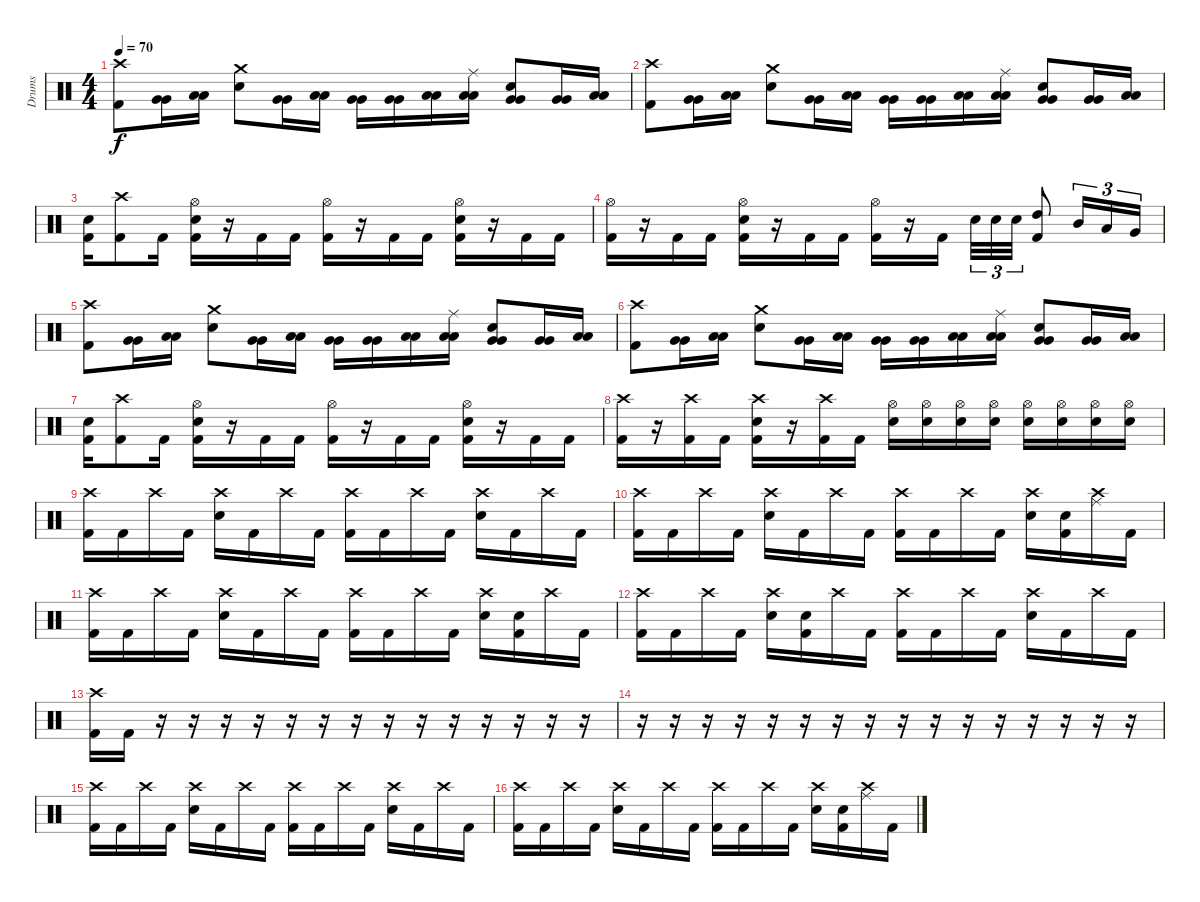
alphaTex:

\track ("Drums" "Drums") {instrument percussion}
\staff {score}
\articulation defaults
\ts (4 4)
\tempo 70
\clef neutral
\ks c
("Crash high (hit)" "Kick (hit) 2").8{dy f} ("Very Low Tom (hit)" "Very Low Tom (hit)").16 ("Low Floor Tom (hit)" "Low Floor Tom (hit)").16 ("Crash medium (hit)" "Snare (hit) 2").8 ("Very Low Tom (hit)" "Very Low Tom (hit)").16 ("Low Floor Tom (hit)" "Low Floor Tom (hit)").16 ("Very Low Tom (hit)" "Very Low Tom (hit)").16 ("Very Low Tom (hit)" "Very Low Tom (hit)").16 ("Low Floor Tom (hit)" "Low Floor Tom (hit)").16 ("Ride (middle)" "Low Floor Tom (hit)" "Low Floor Tom (hit)").16 ("Very Low Tom (hit)" "Very Low Tom (hit)" "Snare (hit) 2").8 ("Very Low Tom (hit)" "Very Low Tom (hit)").16 ("Low Floor Tom (hit)" "Low Floor Tom (hit)").16 |
("Crash high (hit)" "Kick (hit) 2").8 ("Very Low Tom (hit)" "Very Low Tom (hit)").16 ("Low Floor Tom (hit)" "Low Floor Tom (hit)").16 ("Crash medium (hit)" "Snare (hit) 2").8 ("Very Low Tom (hit)" "Very Low Tom (hit)").16 ("Low Floor Tom (hit)" "Low Floor Tom (hit)").16 ("Very Low Tom (hit)" "Very Low Tom (hit)").16 ("Very Low Tom (hit)" "Very Low Tom (hit)").16 ("Low Floor Tom (hit)" "Low Floor Tom (hit)").16 ("Ride (middle)" "Low Floor Tom (hit)" "Low Floor Tom (hit)").16 ("Very Low Tom (hit)" "Very Low Tom (hit)" "Snare (hit) 2").8 ("Very Low Tom (hit)" "Very Low Tom (hit)").16 ("Low Floor Tom (hit)" "Low Floor Tom (hit)").16 |
("Snare (hit) 2" "Kick (hit) 2").16 ("Crash high (hit)" "Kick (hit) 2").8 "Kick (hit) 2".16 ("Hi-Hat (open)" "Snare (hit) 2" "Kick (hit) 2").16 r.16 "Kick (hit) 2".16 "Kick (hit) 2".16 ("Hi-Hat (open)" "Kick (hit) 2").16 r.16 "Kick (hit) 2".16 "Kick (hit) 2".16 ("Hi-Hat (open)" "Snare (hit) 2" "Kick (hit) 2").16 r.16 "Kick (hit) 2".16 "Kick (hit) 2".16 |
("Hi-Hat (open)" "Kick (hit) 2").16 r.16 "Kick (hit) 2".16 "Kick (hit) 2".16 ("Hi-Hat (open)" "Snare (hit) 2" "Kick (hit) 2").16 r.16 "Kick (hit) 2".16 "Kick (hit) 2".16 ("Hi-Hat (open)" "Kick (hit) 2").16 r.16 "Kick (hit) 2".16 "Snare (hit) 2".32{tu (3 2)} "Snare (hit) 2".32{tu (3 2)} "Snare (hit) 2".32{tu (3 2)} ("High Tom (hit)" "Kick (hit) 2").8 "Mid Tom (hit)".16{tu (3 2)} "Low Tom (hit)".16{tu (3 2)} "Very Low Tom (hit)".16{tu (3 2)} |
("Crash high (hit)" "Kick (hit) 2").8 ("Very Low Tom (hit)" "Very Low Tom (hit)").16 ("Low Floor Tom (hit)" "Low Floor Tom (hit)").16 ("Crash medium (hit)" "Snare (hit) 2").8 ("Very Low Tom (hit)" "Very Low Tom (hit)").16 ("Low Floor Tom (hit)" "Low Floor Tom (hit)").16 ("Very Low Tom (hit)" "Very Low Tom (hit)").16 ("Very Low Tom (hit)" "Very Low Tom (hit)").16 ("Low Floor Tom (hit)" "Low Floor Tom (hit)").16 ("Ride (middle)" "Low Floor Tom (hit)" "Low Floor Tom (hit)").16 ("Very Low Tom (hit)" "Very Low Tom (hit)" "Snare (hit) 2").8 ("Very Low Tom (hit)" "Very Low Tom (hit)").16 ("Low Floor Tom (hit)" "Low Floor Tom (hit)").16 |
("Crash high (hit)" "Kick (hit) 2").8 ("Very Low Tom (hit)" "Very Low Tom (hit)").16 ("Low Floor Tom (hit)" "Low Floor Tom (hit)").16 ("Crash medium (hit)" "Snare (hit) 2").8 ("Very Low Tom (hit)" "Very Low Tom (hit)").16 ("Low Floor Tom (hit)" "Low Floor Tom (hit)").16 ("Very Low Tom (hit)" "Very Low Tom (hit)").16 ("Very Low Tom (hit)" "Very Low Tom (hit)").16 ("Low Floor Tom (hit)" "Low Floor Tom (hit)").16 ("Ride (middle)" "Low Floor Tom (hit)" "Low Floor Tom (hit)").16 ("Very Low Tom (hit)" "Very Low Tom (hit)" "Snare (hit) 2").8 ("Very Low Tom (hit)" "Very Low Tom (hit)").16 ("Low Floor Tom (hit)" "Low Floor Tom (hit)").16 |
("Snare (hit) 2" "Kick (hit) 2").16 ("Crash high (hit)" "Kick (hit) 2").8 "Kick (hit) 2".16 ("Hi-Hat (open)" "Snare (hit) 2" "Kick (hit) 2").16 r.16 "Kick (hit) 2".16 "Kick (hit) 2".16 ("Hi-Hat (open)" "Kick (hit) 2").16 r.16 "Kick (hit) 2".16 "Kick (hit) 2".16 ("Hi-Hat (open)" "Snare (hit) 2" "Kick (hit) 2").16 r.16 "Kick (hit) 2".16 "Kick (hit) 2".16 |
("Crash high (hit)" "Kick (hit) 2").16 r.16 ("Crash high (hit)" "Kick (hit) 2").16 "Kick (hit) 2".16 ("Crash high (hit)" "Snare (hit) 2" "Kick (hit) 2").16 r.16 ("Crash high (hit)" "Kick (hit) 2").16 "Kick (hit) 2".16 ("Snare (hit) 2" "Hi-Hat (open)").16 ("Snare (hit) 2" "Hi-Hat (open)").16 ("Snare (hit) 2" "Hi-Hat (open)").16 ("Snare (hit) 2" "Hi-Hat (open)").16 ("Snare (hit) 2" "Hi-Hat (open)").16 ("Snare (hit) 2" "Hi-Hat (open)").16 ("Snare (hit) 2" "Hi-Hat (open)").16 ("Snare (hit) 2" "Hi-Hat (open)").16 |
("Crash high (hit)" "Kick (hit) 2").16 "Kick (hit) 2".16 "Crash high (hit)".16 "Kick (hit) 2".16 ("Crash high (hit)" "Snare (hit) 2").16 "Kick (hit) 2".16 "Crash high (hit)".16 "Kick (hit) 2".16 ("Crash high (hit)" "Kick (hit) 2").16 "Kick (hit) 2".16 "Crash high (hit)".16 "Kick (hit) 2".16 ("Crash high (hit)" "Snare (hit) 2").16 "Kick (hit) 2".16 "Crash high (hit)".16 "Kick (hit) 2".16 |
("Crash high (hit)" "Kick (hit) 2").16 "Kick (hit) 2".16 "Crash high (hit)".16 "Kick (hit) 2".16 ("Crash high (hit)" "Snare (hit) 2").16 "Kick (hit) 2".16 "Crash high (hit)".16 "Kick (hit) 2".16 ("Crash high (hit)" "Kick (hit) 2").16 "Kick (hit) 2".16 "Crash high (hit)".16 "Kick (hit) 2".16 ("Crash high (hit)" "Snare (hit) 2").16 ("Snare (hit) 2" "Kick (hit) 2").16 ("Crash high (hit)" "Ride (middle)").16 "Kick (hit) 2".16 |
("Crash high (hit)" "Kick (hit) 2").16 "Kick (hit) 2".16 "Crash high (hit)".16 "Kick (hit) 2".16 ("Crash high (hit)" "Snare (hit) 2").16 "Kick (hit) 2".16 "Crash high (hit)".16 "Kick (hit) 2".16 ("Crash high (hit)" "Kick (hit) 2").16 "Kick (hit) 2".16 "Crash high (hit)".16 "Kick (hit) 2".16 ("Crash high (hit)" "Snare (hit) 2").16 ("Snare (hit) 2" "Kick (hit) 2").16 "Crash high (hit)".16 "Kick (hit) 2".16 |
("Crash high (hit)" "Kick (hit) 2").16 "Kick (hit) 2".16 "Crash high (hit)".16 "Kick (hit) 2".16 ("Crash high (hit)" "Snare (hit) 2").16 ("Snare (hit) 2" "Kick (hit) 2").16 "Crash high (hit)".16 "Kick (hit) 2".16 ("Crash high (hit)" "Kick (hit) 2").16 "Kick (hit) 2".16 "Crash high (hit)".16 "Kick (hit) 2".16 ("Crash high (hit)" "Snare (hit) 2").16 "Kick (hit) 2".16 "Crash high (hit)".16 "Kick (hit) 2".16 |
("Crash high (hit)" "Kick (hit) 2").16 "Kick (hit) 2".16 r.16 r.16 r.16 r.16 r.16 r.16 r.16 r.16 r.16 r.16 r.16 r.16 r.16 r.16 |
r.16 r.16 r.16 r.16 r.16 r.16 r.16 r.16 r.16 r.16 r.16 r.16 r.16 r.16 r.16 r.16 |
("Crash high (hit)" "Kick (hit) 2").16 "Kick (hit) 2".16 "Crash high (hit)".16 "Kick (hit) 2".16 ("Crash high (hit)" "Snare (hit) 2").16 "Kick (hit) 2".16 "Crash high (hit)".16 "Kick (hit) 2".16 ("Crash high (hit)" "Kick (hit) 2").16 "Kick (hit) 2".16 "Crash high (hit)".16 "Kick (hit) 2".16 ("Crash high (hit)" "Snare (hit) 2").16 "Kick (hit) 2".16 "Crash high (hit)".16 "Kick (hit) 2".16 |
("Crash high (hit)" "Kick (hit) 2").16 "Kick (hit) 2".16 "Crash high (hit)".16 "Kick (hit) 2".16 ("Crash high (hit)" "Snare (hit) 2").16 "Kick (hit) 2".16 "Crash high (hit)".16 "Kick (hit) 2".16 ("Crash high (hit)" "Kick (hit) 2").16 "Kick (hit) 2".16 "Crash high (hit)".16 "Kick (hit) 2".16 ("Crash high (hit)" "Snare (hit) 2").16 ("Snare (hit) 2" "Kick (hit) 2").16 ("Crash high (hit)" "Ride (middle)").16 "Kick (hit) 2".16
